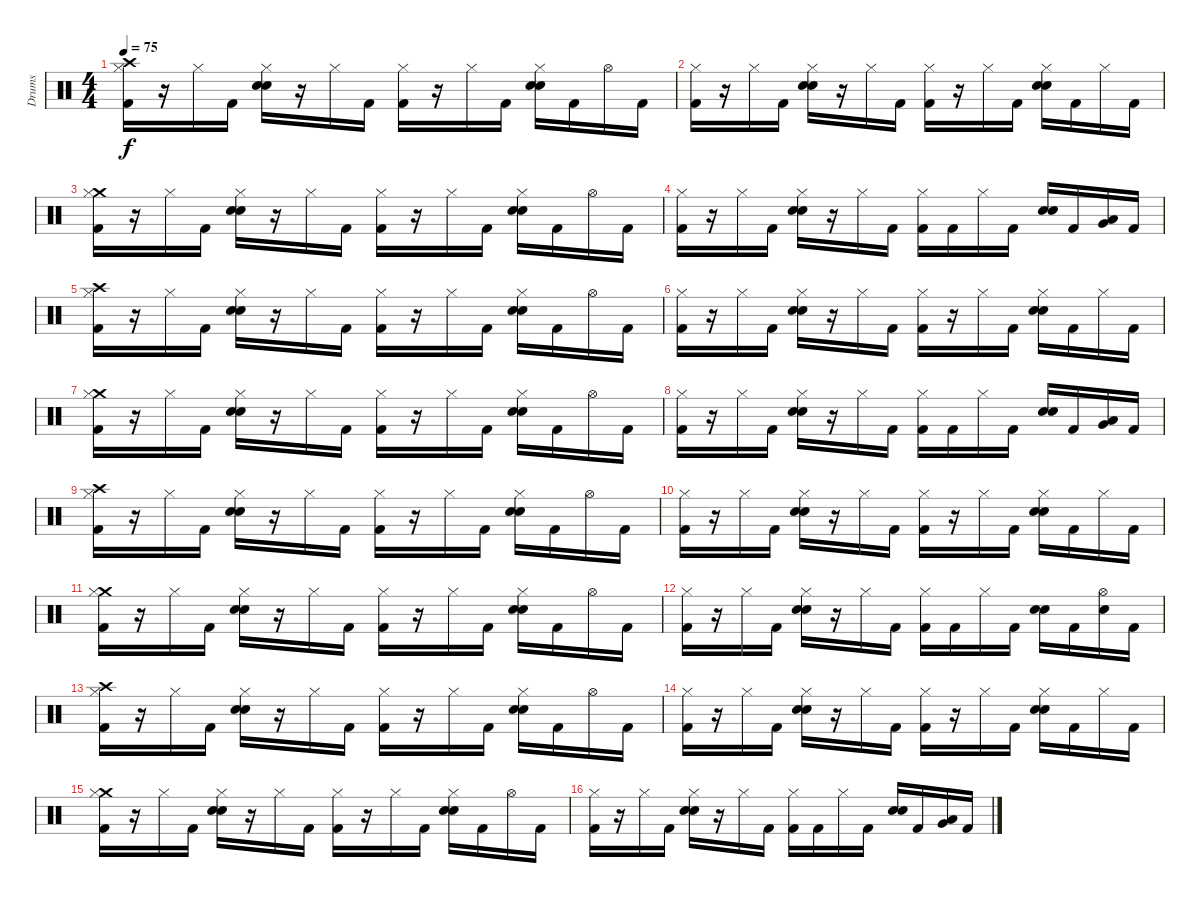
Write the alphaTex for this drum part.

\track ("Drums" "Drums") {instrument percussion}
\staff {score}
\articulation defaults
\ts (4 4)
\tempo 75
\clef neutral
\ks c
("Crash high (hit)" "Hi-Hat (closed)" "Kick (hit) 2").16{dy f} r.16 "Hi-Hat (closed)".16 "Kick (hit) 2".16 ("Hi-Hat (closed)" "Electric Snare (hit)" "Snare (hit) 2").16 r.16 "Hi-Hat (closed)".16 "Kick (hit) 2".16 ("Hi-Hat (closed)" "Kick (hit) 2").16 r.16 "Hi-Hat (closed)".16 "Kick (hit) 2".16 ("Hi-Hat (closed)" "Electric Snare (hit)" "Snare (hit) 2").16 "Kick (hit) 2".16 "Hi-Hat (open)".16 "Kick (hit) 2".16 |
("Hi-Hat (closed)" "Kick (hit) 2").16 r.16 "Hi-Hat (closed)".16 "Kick (hit) 2".16 ("Hi-Hat (closed)" "Electric Snare (hit)" "Snare (hit) 2").16 r.16 "Hi-Hat (closed)".16 "Kick (hit) 2".16 ("Hi-Hat (closed)" "Kick (hit) 2").16 r.16 "Hi-Hat (closed)".16 "Kick (hit) 2".16 ("Hi-Hat (closed)" "Electric Snare (hit)" "Snare (hit) 2").16 "Kick (hit) 2".16 "Hi-Hat (closed)".16 "Kick (hit) 2".16 |
("Crash medium (hit)" "Hi-Hat (closed)" "Kick (hit) 2").16 r.16 "Hi-Hat (closed)".16 "Kick (hit) 2".16 ("Hi-Hat (closed)" "Electric Snare (hit)" "Snare (hit) 2").16 r.16 "Hi-Hat (closed)".16 "Kick (hit) 2".16 ("Hi-Hat (closed)" "Kick (hit) 2").16 r.16 "Hi-Hat (closed)".16 "Kick (hit) 2".16 ("Hi-Hat (closed)" "Electric Snare (hit)" "Snare (hit) 2").16 "Kick (hit) 2".16 "Hi-Hat (open)".16 "Kick (hit) 2".16 |
("Hi-Hat (closed)" "Kick (hit) 2").16 r.16 "Hi-Hat (closed)".16 "Kick (hit) 2".16 ("Hi-Hat (closed)" "Electric Snare (hit)" "Snare (hit) 2").16 r.16 "Hi-Hat (closed)".16 "Kick (hit) 2".16 ("Hi-Hat (closed)" "Kick (hit) 2").16 "Kick (hit) 2".16 "Hi-Hat (closed)".16 "Kick (hit) 2".16 ("Electric Snare (hit)" "Snare (hit) 2").16 "Kick (hit) 2".16 ("Very Low Tom (hit)" "Low Floor Tom (hit)").16 "Kick (hit) 2".16 |
("Crash high (hit)" "Hi-Hat (closed)" "Kick (hit) 2").16 r.16 "Hi-Hat (closed)".16 "Kick (hit) 2".16 ("Hi-Hat (closed)" "Electric Snare (hit)" "Snare (hit) 2").16 r.16 "Hi-Hat (closed)".16 "Kick (hit) 2".16 ("Hi-Hat (closed)" "Kick (hit) 2").16 r.16 "Hi-Hat (closed)".16 "Kick (hit) 2".16 ("Hi-Hat (closed)" "Electric Snare (hit)" "Snare (hit) 2").16 "Kick (hit) 2".16 "Hi-Hat (open)".16 "Kick (hit) 2".16 |
("Hi-Hat (closed)" "Kick (hit) 2").16 r.16 "Hi-Hat (closed)".16 "Kick (hit) 2".16 ("Hi-Hat (closed)" "Electric Snare (hit)" "Snare (hit) 2").16 r.16 "Hi-Hat (closed)".16 "Kick (hit) 2".16 ("Hi-Hat (closed)" "Kick (hit) 2").16 r.16 "Hi-Hat (closed)".16 "Kick (hit) 2".16 ("Hi-Hat (closed)" "Electric Snare (hit)" "Snare (hit) 2").16 "Kick (hit) 2".16 "Hi-Hat (closed)".16 "Kick (hit) 2".16 |
("Crash medium (hit)" "Hi-Hat (closed)" "Kick (hit) 2").16 r.16 "Hi-Hat (closed)".16 "Kick (hit) 2".16 ("Hi-Hat (closed)" "Electric Snare (hit)" "Snare (hit) 2").16 r.16 "Hi-Hat (closed)".16 "Kick (hit) 2".16 ("Hi-Hat (closed)" "Kick (hit) 2").16 r.16 "Hi-Hat (closed)".16 "Kick (hit) 2".16 ("Hi-Hat (closed)" "Electric Snare (hit)" "Snare (hit) 2").16 "Kick (hit) 2".16 "Hi-Hat (open)".16 "Kick (hit) 2".16 |
("Hi-Hat (closed)" "Kick (hit) 2").16 r.16 "Hi-Hat (closed)".16 "Kick (hit) 2".16 ("Hi-Hat (closed)" "Electric Snare (hit)" "Snare (hit) 2").16 r.16 "Hi-Hat (closed)".16 "Kick (hit) 2".16 ("Hi-Hat (closed)" "Kick (hit) 2").16 "Kick (hit) 2".16 "Hi-Hat (closed)".16 "Kick (hit) 2".16 ("Electric Snare (hit)" "Snare (hit) 2").16 "Kick (hit) 2".16 ("Very Low Tom (hit)" "Low Floor Tom (hit)").16 "Kick (hit) 2".16 |
("Crash high (hit)" "Hi-Hat (closed)" "Kick (hit) 2").16 r.16 "Hi-Hat (closed)".16 "Kick (hit) 2".16 ("Hi-Hat (closed)" "Electric Snare (hit)" "Snare (hit) 2").16 r.16 "Hi-Hat (closed)".16 "Kick (hit) 2".16 ("Hi-Hat (closed)" "Kick (hit) 2").16 r.16 "Hi-Hat (closed)".16 "Kick (hit) 2".16 ("Hi-Hat (closed)" "Electric Snare (hit)" "Snare (hit) 2").16 "Kick (hit) 2".16 "Hi-Hat (open)".16 "Kick (hit) 2".16 |
("Hi-Hat (closed)" "Kick (hit) 2").16 r.16 "Hi-Hat (closed)".16 "Kick (hit) 2".16 ("Hi-Hat (closed)" "Electric Snare (hit)" "Snare (hit) 2").16 r.16 "Hi-Hat (closed)".16 "Kick (hit) 2".16 ("Hi-Hat (closed)" "Kick (hit) 2").16 r.16 "Hi-Hat (closed)".16 "Kick (hit) 2".16 ("Hi-Hat (closed)" "Electric Snare (hit)" "Snare (hit) 2").16 "Kick (hit) 2".16 "Hi-Hat (closed)".16 "Kick (hit) 2".16 |
("Crash medium (hit)" "Hi-Hat (closed)" "Kick (hit) 2").16 r.16 "Hi-Hat (closed)".16 "Kick (hit) 2".16 ("Hi-Hat (closed)" "Electric Snare (hit)" "Snare (hit) 2").16 r.16 "Hi-Hat (closed)".16 "Kick (hit) 2".16 ("Hi-Hat (closed)" "Kick (hit) 2").16 r.16 "Hi-Hat (closed)".16 "Kick (hit) 2".16 ("Hi-Hat (closed)" "Electric Snare (hit)" "Snare (hit) 2").16 "Kick (hit) 2".16 "Hi-Hat (open)".16 "Kick (hit) 2".16 |
("Hi-Hat (closed)" "Kick (hit) 2").16 r.16 "Hi-Hat (closed)".16 "Kick (hit) 2".16 ("Hi-Hat (closed)" "Electric Snare (hit)" "Snare (hit) 2").16 r.16 "Hi-Hat (closed)".16 "Kick (hit) 2".16 ("Hi-Hat (closed)" "Kick (hit) 2").16 "Kick (hit) 2".16 "Hi-Hat (closed)".16 "Kick (hit) 2".16 ("Electric Snare (hit)" "Snare (hit) 2").16 "Kick (hit) 2".16 ("Hi-Hat (open)" "Electric Snare (hit)").16 "Kick (hit) 2".16 |
("Crash high (hit)" "Hi-Hat (closed)" "Kick (hit) 2").16 r.16 "Hi-Hat (closed)".16 "Kick (hit) 2".16 ("Hi-Hat (closed)" "Electric Snare (hit)" "Snare (hit) 2").16 r.16 "Hi-Hat (closed)".16 "Kick (hit) 2".16 ("Hi-Hat (closed)" "Kick (hit) 2").16 r.16 "Hi-Hat (closed)".16 "Kick (hit) 2".16 ("Hi-Hat (closed)" "Electric Snare (hit)" "Snare (hit) 2").16 "Kick (hit) 2".16 "Hi-Hat (open)".16 "Kick (hit) 2".16 |
("Hi-Hat (closed)" "Kick (hit) 2").16 r.16 "Hi-Hat (closed)".16 "Kick (hit) 2".16 ("Hi-Hat (closed)" "Electric Snare (hit)" "Snare (hit) 2").16 r.16 "Hi-Hat (closed)".16 "Kick (hit) 2".16 ("Hi-Hat (closed)" "Kick (hit) 2").16 r.16 "Hi-Hat (closed)".16 "Kick (hit) 2".16 ("Hi-Hat (closed)" "Electric Snare (hit)" "Snare (hit) 2").16 "Kick (hit) 2".16 "Hi-Hat (closed)".16 "Kick (hit) 2".16 |
("Crash medium (hit)" "Hi-Hat (closed)" "Kick (hit) 2").16 r.16 "Hi-Hat (closed)".16 "Kick (hit) 2".16 ("Hi-Hat (closed)" "Electric Snare (hit)" "Snare (hit) 2").16 r.16 "Hi-Hat (closed)".16 "Kick (hit) 2".16 ("Hi-Hat (closed)" "Kick (hit) 2").16 r.16 "Hi-Hat (closed)".16 "Kick (hit) 2".16 ("Hi-Hat (closed)" "Electric Snare (hit)" "Snare (hit) 2").16 "Kick (hit) 2".16 "Hi-Hat (open)".16 "Kick (hit) 2".16 |
("Hi-Hat (closed)" "Kick (hit) 2").16 r.16 "Hi-Hat (closed)".16 "Kick (hit) 2".16 ("Hi-Hat (closed)" "Electric Snare (hit)" "Snare (hit) 2").16 r.16 "Hi-Hat (closed)".16 "Kick (hit) 2".16 ("Hi-Hat (closed)" "Kick (hit) 2").16 "Kick (hit) 2".16 "Hi-Hat (closed)".16 "Kick (hit) 2".16 ("Electric Snare (hit)" "Snare (hit) 2").16 "Kick (hit) 2".16 ("Very Low Tom (hit)" "Low Floor Tom (hit)").16 "Kick (hit) 2".16
